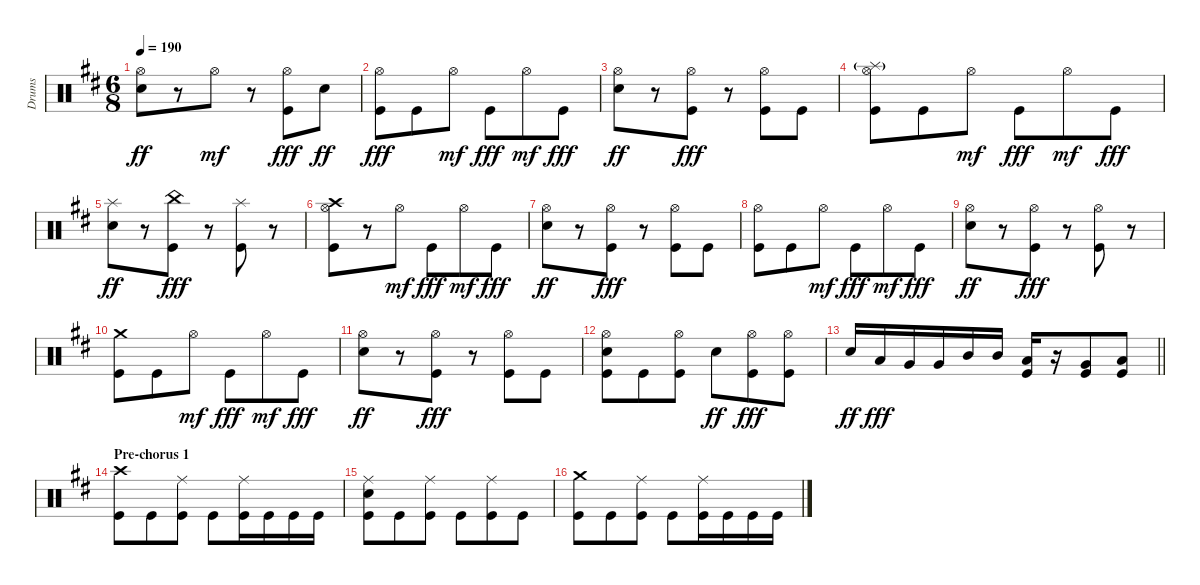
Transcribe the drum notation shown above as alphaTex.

\track ("Drums" "Drums") {instrument percussion}
\staff {score}
\articulation defaults
\ts (6 8)
\tempo 190
\clef neutral
\ks bminor
("Hi-Hat (open)" "Snare (hit) 2").8{dy ff} r.8 "Hi-Hat (open)".8{dy mf} r.8 ("Hi-Hat (open)" "Kick (hit)").8{dy fff} "Snare (hit) 2".8{dy ff} |
("Hi-Hat (open)" "Kick (hit)").8{dy fff} "Kick (hit)".8 "Hi-Hat (open)".8{dy mf} "Kick (hit)".8{dy fff} "Hi-Hat (open)".8{dy mf} "Kick (hit)".8{dy fff} |
("Hi-Hat (open)" "Snare (hit) 2").8{dy ff} r.8 ("Hi-Hat (open)" "Kick (hit)").8{dy fff} r.8 ("Hi-Hat (open)" "Kick (hit)").8 "Kick (hit)".8 |
("Splash (hit)"{g} "Hi-Hat (open)" "Kick (hit)").8 "Kick (hit)".8 "Hi-Hat (open)".8{dy mf} "Kick (hit)".8{dy fff} "Hi-Hat (open)".8{dy mf} "Kick (hit)".8{dy fff} |
("Splash (hit)" "Snare (hit) 2").8{dy ff} r.8 ("China (hit)" "Kick (hit)").8{dy fff} r.8 ("Splash (hit)" "Kick (hit)").8 r.8 |
("Crash high (hit)" "Hi-Hat (open)" "Kick (hit)").8 r.8 "Hi-Hat (open)".8{dy mf} "Kick (hit)".8{dy fff} "Hi-Hat (open)".8{dy mf} "Kick (hit)".8{dy fff} |
("Hi-Hat (open)" "Snare (hit) 2").8{dy ff} r.8 ("Hi-Hat (open)" "Kick (hit)").8{dy fff} r.8 ("Hi-Hat (open)" "Kick (hit)").8 "Kick (hit)".8 |
("Hi-Hat (open)" "Kick (hit)").8 "Kick (hit)".8 "Hi-Hat (open)".8{dy mf} "Kick (hit)".8{dy fff} "Hi-Hat (open)".8{dy mf} "Kick (hit)".8{dy fff} |
("Hi-Hat (open)" "Snare (hit) 2").8{dy ff} r.8 ("Hi-Hat (open)" "Kick (hit)").8{dy fff} r.8 ("Hi-Hat (open)" "Kick (hit)").8 r.8 |
("Crash medium (hit)" "Kick (hit)").8 "Kick (hit)".8 "Hi-Hat (open)".8{dy mf} "Kick (hit)".8{dy fff} "Hi-Hat (open)".8{dy mf} "Kick (hit)".8{dy fff} |
("Hi-Hat (open)" "Snare (hit) 2").8{dy ff} r.8 ("Hi-Hat (open)" "Kick (hit)").8{dy fff} r.8 ("Hi-Hat (open)" "Kick (hit)").8 "Kick (hit)".8 |
("Hi-Hat (open)" "Snare (hit) 2" "Kick (hit)").8 "Kick (hit)".8 ("Hi-Hat (open)" "Kick (hit)").8 "Snare (hit) 2".8{dy ff} ("Hi-Hat (open)" "Kick (hit)").8{dy fff} ("Hi-Hat (open)" "Kick (hit)").8 |
\barLineRight lightlight "Snare (hit) 2".16{dy ff} "Low Tom (hit)".16{dy fff} "Very Low Tom (hit)".16 "Very Low Tom (hit)".16 "Mid Tom (hit)".16 "Mid Tom (hit)".16
("Low Tom (hit)" "Kick (hit)").16 r.16 ("Very Low Tom (hit)" "Kick (hit)").8 ("Low Floor Tom (hit)" "Kick (hit)").8 |
\section ("" "Pre-chorus 1")
("Crash high (hit)" "Kick (hit)").8 "Kick (hit)".8 ("Ride (middle)" "Kick (hit)").8 "Kick (hit)".8 ("Ride (middle)" "Kick (hit)").16 "Kick (hit)".16 "Kick (hit)".16 "Kick (hit)".16 |
("Ride (middle)" "Snare (hit) 2" "Kick (hit)").8 "Kick (hit)".8 ("Ride (middle)" "Kick (hit)").8 "Kick (hit)".8 ("Ride (middle)" "Kick (hit)").8 "Kick (hit)".8 |
("Crash medium (hit)" "Kick (hit)").8 "Kick (hit)".8 ("Ride (middle)" "Kick (hit)").8 "Kick (hit)".8 ("Ride (middle)" "Kick (hit)").16 "Kick (hit)".16 "Kick (hit)".16 "Kick (hit)".16
